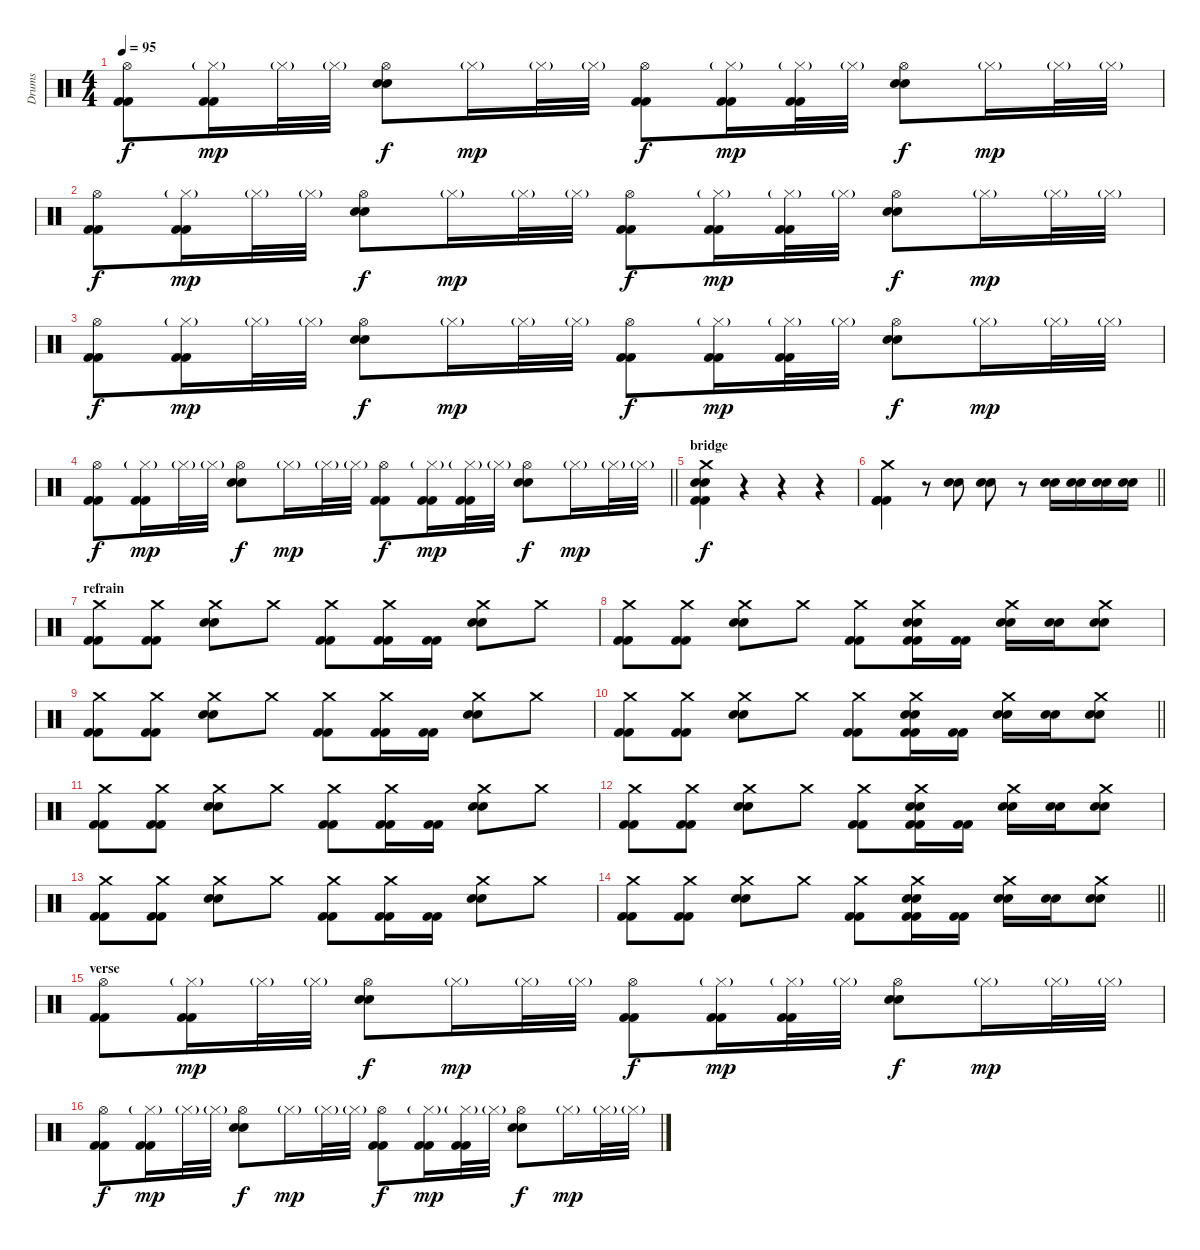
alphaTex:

\track ("Drums" "Drums") {instrument percussion}
\staff {score}
\articulation defaults
\ts (4 4)
\tempo 95
\clef neutral
\ks c
("Hi-Hat (open)" "Kick (hit) 2" "Kick (hit) 2").8{dy f} ("Hi-Hat (closed)"{g} "Kick (hit) 2" "Kick (hit) 2").16{dy mp} "Hi-Hat (closed)"{g}.32 "Hi-Hat (closed)"{g}.32 ("Hi-Hat (open)" "Snare (hit) 2" "Snare (hit) 2").8{dy f} "Hi-Hat (closed)"{g}.16{dy mp} "Hi-Hat (closed)"{g}.32 "Hi-Hat (closed)"{g}.32 ("Hi-Hat (open)" "Kick (hit) 2" "Kick (hit) 2").8{dy f} ("Hi-Hat (closed)"{g} "Kick (hit) 2" "Kick (hit) 2").16{dy mp} ("Hi-Hat (closed)"{g} "Kick (hit) 2" "Kick (hit) 2").32 "Hi-Hat (closed)"{g}.32 ("Hi-Hat (open)" "Snare (hit) 2" "Snare (hit) 2").8{dy f} "Hi-Hat (closed)"{g}.16{dy mp} "Hi-Hat (closed)"{g}.32 "Hi-Hat (closed)"{g}.32 |
("Hi-Hat (open)" "Kick (hit) 2" "Kick (hit) 2").8{dy f} ("Hi-Hat (closed)"{g} "Kick (hit) 2" "Kick (hit) 2").16{dy mp} "Hi-Hat (closed)"{g}.32 "Hi-Hat (closed)"{g}.32 ("Hi-Hat (open)" "Snare (hit) 2" "Snare (hit) 2").8{dy f} "Hi-Hat (closed)"{g}.16{dy mp} "Hi-Hat (closed)"{g}.32 "Hi-Hat (closed)"{g}.32 ("Hi-Hat (open)" "Kick (hit) 2" "Kick (hit) 2").8{dy f} ("Hi-Hat (closed)"{g} "Kick (hit) 2" "Kick (hit) 2").16{dy mp} ("Hi-Hat (closed)"{g} "Kick (hit) 2" "Kick (hit) 2").32 "Hi-Hat (closed)"{g}.32 ("Hi-Hat (open)" "Snare (hit) 2" "Snare (hit) 2").8{dy f} "Hi-Hat (closed)"{g}.16{dy mp} "Hi-Hat (closed)"{g}.32 "Hi-Hat (closed)"{g}.32 |
("Hi-Hat (open)" "Kick (hit) 2" "Kick (hit) 2").8{dy f} ("Hi-Hat (closed)"{g} "Kick (hit) 2" "Kick (hit) 2").16{dy mp} "Hi-Hat (closed)"{g}.32 "Hi-Hat (closed)"{g}.32 ("Hi-Hat (open)" "Snare (hit) 2" "Snare (hit) 2").8{dy f} "Hi-Hat (closed)"{g}.16{dy mp} "Hi-Hat (closed)"{g}.32 "Hi-Hat (closed)"{g}.32 ("Hi-Hat (open)" "Kick (hit) 2" "Kick (hit) 2").8{dy f} ("Hi-Hat (closed)"{g} "Kick (hit) 2" "Kick (hit) 2").16{dy mp} ("Hi-Hat (closed)"{g} "Kick (hit) 2" "Kick (hit) 2").32 "Hi-Hat (closed)"{g}.32 ("Hi-Hat (open)" "Snare (hit) 2" "Snare (hit) 2").8{dy f} "Hi-Hat (closed)"{g}.16{dy mp} "Hi-Hat (closed)"{g}.32 "Hi-Hat (closed)"{g}.32 |
\barLineRight lightlight
("Hi-Hat (open)" "Kick (hit) 2" "Kick (hit) 2").8{dy f} ("Hi-Hat (closed)"{g} "Kick (hit) 2" "Kick (hit) 2").16{dy mp} "Hi-Hat (closed)"{g}.32 "Hi-Hat (closed)"{g}.32 ("Hi-Hat (open)" "Snare (hit) 2" "Snare (hit) 2").8{dy f} "Hi-Hat (closed)"{g}.16{dy mp} "Hi-Hat (closed)"{g}.32 "Hi-Hat (closed)"{g}.32 ("Hi-Hat (open)" "Kick (hit) 2" "Kick (hit) 2").8{dy f} ("Hi-Hat (closed)"{g} "Kick (hit) 2" "Kick (hit) 2").16{dy mp} ("Hi-Hat (closed)"{g} "Kick (hit) 2" "Kick (hit) 2").32 "Hi-Hat (closed)"{g}.32 ("Hi-Hat (open)" "Snare (hit) 2" "Snare (hit) 2").8{dy f} "Hi-Hat (closed)"{g}.16{dy mp} "Hi-Hat (closed)"{g}.32 "Hi-Hat (closed)"{g}.32 |
\section ("" "bridge")
("Crash medium (hit)" "Snare (hit) 2" "Snare (hit) 2" "Kick (hit) 2" "Kick (hit) 2").4{dy f} r.4 r.4 r.4 |
\barLineRight lightlight
("Crash medium (hit)" "Kick (hit) 2" "Kick (hit) 2" "Kick (hit) 2").4 r.8 ("Snare (hit) 2" "Snare (hit) 2").8 ("Snare (hit) 2" "Snare (hit) 2").8 r.8 ("Snare (hit) 2" "Snare (hit) 2").16 ("Snare (hit) 2" "Snare (hit) 2").16 ("Snare (hit) 2" "Snare (hit) 2").16 ("Snare (hit) 2" "Snare (hit) 2").16 |
\section ("" "refrain")
("Crash medium (hit)" "Kick (hit) 2" "Kick (hit) 2").8 ("Crash medium (hit)" "Kick (hit) 2" "Kick (hit) 2").8 ("Crash medium (hit)" "Snare (hit) 2" "Snare (hit) 2").8 "Crash medium (hit)".8 ("Crash medium (hit)" "Kick (hit) 2" "Kick (hit) 2").8 ("Crash medium (hit)" "Kick (hit) 2" "Kick (hit) 2").16 ("Kick (hit) 2" "Kick (hit) 2").16 ("Crash medium (hit)" "Snare (hit) 2" "Snare (hit) 2").8 "Crash medium (hit)".8 |
("Crash medium (hit)" "Kick (hit) 2" "Kick (hit) 2").8 ("Crash medium (hit)" "Kick (hit) 2" "Kick (hit) 2").8 ("Crash medium (hit)" "Snare (hit) 2" "Snare (hit) 2").8 "Crash medium (hit)".8 ("Crash medium (hit)" "Kick (hit) 2" "Kick (hit) 2").8 ("Crash medium (hit)" "Snare (hit) 2" "Snare (hit) 2" "Kick (hit) 2" "Kick (hit) 2").16 ("Kick (hit) 2" "Kick (hit) 2").16 ("Crash medium (hit)" "Snare (hit) 2" "Snare (hit) 2").16 ("Snare (hit) 2" "Snare (hit) 2").16 ("Crash medium (hit)" "Snare (hit) 2" "Snare (hit) 2").8 |
("Crash medium (hit)" "Kick (hit) 2" "Kick (hit) 2").8 ("Crash medium (hit)" "Kick (hit) 2" "Kick (hit) 2").8 ("Crash medium (hit)" "Snare (hit) 2" "Snare (hit) 2").8 "Crash medium (hit)".8 ("Crash medium (hit)" "Kick (hit) 2" "Kick (hit) 2").8 ("Crash medium (hit)" "Kick (hit) 2" "Kick (hit) 2").16 ("Kick (hit) 2" "Kick (hit) 2").16 ("Crash medium (hit)" "Snare (hit) 2" "Snare (hit) 2").8 "Crash medium (hit)".8 |
\barLineRight lightlight
("Crash medium (hit)" "Kick (hit) 2" "Kick (hit) 2").8 ("Crash medium (hit)" "Kick (hit) 2" "Kick (hit) 2").8 ("Crash medium (hit)" "Snare (hit) 2" "Snare (hit) 2").8 "Crash medium (hit)".8 ("Crash medium (hit)" "Kick (hit) 2" "Kick (hit) 2").8 ("Crash medium (hit)" "Snare (hit) 2" "Snare (hit) 2" "Kick (hit) 2" "Kick (hit) 2").16 ("Kick (hit) 2" "Kick (hit) 2").16 ("Crash medium (hit)" "Snare (hit) 2" "Snare (hit) 2").16 ("Snare (hit) 2" "Snare (hit) 2").16 ("Crash medium (hit)" "Snare (hit) 2" "Snare (hit) 2").8 |
("Crash medium (hit)" "Kick (hit) 2" "Kick (hit) 2").8 ("Crash medium (hit)" "Kick (hit) 2" "Kick (hit) 2").8 ("Crash medium (hit)" "Snare (hit) 2" "Snare (hit) 2").8 "Crash medium (hit)".8 ("Crash medium (hit)" "Kick (hit) 2" "Kick (hit) 2").8 ("Crash medium (hit)" "Kick (hit) 2" "Kick (hit) 2").16 ("Kick (hit) 2" "Kick (hit) 2").16 ("Crash medium (hit)" "Snare (hit) 2" "Snare (hit) 2").8 "Crash medium (hit)".8 |
("Crash medium (hit)" "Kick (hit) 2" "Kick (hit) 2").8 ("Crash medium (hit)" "Kick (hit) 2" "Kick (hit) 2").8 ("Crash medium (hit)" "Snare (hit) 2" "Snare (hit) 2").8 "Crash medium (hit)".8 ("Crash medium (hit)" "Kick (hit) 2" "Kick (hit) 2").8 ("Crash medium (hit)" "Snare (hit) 2" "Snare (hit) 2" "Kick (hit) 2" "Kick (hit) 2").16 ("Kick (hit) 2" "Kick (hit) 2").16 ("Crash medium (hit)" "Snare (hit) 2" "Snare (hit) 2").16 ("Snare (hit) 2" "Snare (hit) 2").16 ("Crash medium (hit)" "Snare (hit) 2" "Snare (hit) 2").8 |
("Crash medium (hit)" "Kick (hit) 2" "Kick (hit) 2").8 ("Crash medium (hit)" "Kick (hit) 2" "Kick (hit) 2").8 ("Crash medium (hit)" "Snare (hit) 2" "Snare (hit) 2").8 "Crash medium (hit)".8 ("Crash medium (hit)" "Kick (hit) 2" "Kick (hit) 2").8 ("Crash medium (hit)" "Kick (hit) 2" "Kick (hit) 2").16 ("Kick (hit) 2" "Kick (hit) 2").16 ("Crash medium (hit)" "Snare (hit) 2" "Snare (hit) 2").8 "Crash medium (hit)".8 |
\barLineRight lightlight
("Crash medium (hit)" "Kick (hit) 2" "Kick (hit) 2").8 ("Crash medium (hit)" "Kick (hit) 2" "Kick (hit) 2").8 ("Crash medium (hit)" "Snare (hit) 2" "Snare (hit) 2").8 "Crash medium (hit)".8 ("Crash medium (hit)" "Kick (hit) 2" "Kick (hit) 2").8 ("Crash medium (hit)" "Snare (hit) 2" "Snare (hit) 2" "Kick (hit) 2" "Kick (hit) 2").16 ("Kick (hit) 2" "Kick (hit) 2").16 ("Crash medium (hit)" "Snare (hit) 2" "Snare (hit) 2").16 ("Snare (hit) 2" "Snare (hit) 2").16 ("Crash medium (hit)" "Snare (hit) 2" "Snare (hit) 2").8 |
\section ("" "verse")
("Hi-Hat (open)" "Kick (hit) 2" "Kick (hit) 2").8 ("Hi-Hat (closed)"{g} "Kick (hit) 2" "Kick (hit) 2").16{dy mp} "Hi-Hat (closed)"{g}.32 "Hi-Hat (closed)"{g}.32 ("Hi-Hat (open)" "Snare (hit) 2" "Snare (hit) 2").8{dy f} "Hi-Hat (closed)"{g}.16{dy mp} "Hi-Hat (closed)"{g}.32 "Hi-Hat (closed)"{g}.32 ("Hi-Hat (open)" "Kick (hit) 2" "Kick (hit) 2").8{dy f} ("Hi-Hat (closed)"{g} "Kick (hit) 2" "Kick (hit) 2").16{dy mp} ("Hi-Hat (closed)"{g} "Kick (hit) 2" "Kick (hit) 2").32 "Hi-Hat (closed)"{g}.32 ("Hi-Hat (open)" "Snare (hit) 2" "Snare (hit) 2").8{dy f} "Hi-Hat (closed)"{g}.16{dy mp} "Hi-Hat (closed)"{g}.32 "Hi-Hat (closed)"{g}.32 |
("Hi-Hat (open)" "Kick (hit) 2" "Kick (hit) 2").8{dy f} ("Hi-Hat (closed)"{g} "Kick (hit) 2" "Kick (hit) 2").16{dy mp} "Hi-Hat (closed)"{g}.32 "Hi-Hat (closed)"{g}.32 ("Hi-Hat (open)" "Snare (hit) 2" "Snare (hit) 2").8{dy f} "Hi-Hat (closed)"{g}.16{dy mp} "Hi-Hat (closed)"{g}.32 "Hi-Hat (closed)"{g}.32 ("Hi-Hat (open)" "Kick (hit) 2" "Kick (hit) 2").8{dy f} ("Hi-Hat (closed)"{g} "Kick (hit) 2" "Kick (hit) 2").16{dy mp} ("Hi-Hat (closed)"{g} "Kick (hit) 2" "Kick (hit) 2").32 "Hi-Hat (closed)"{g}.32 ("Hi-Hat (open)" "Snare (hit) 2" "Snare (hit) 2").8{dy f} "Hi-Hat (closed)"{g}.16{dy mp} "Hi-Hat (closed)"{g}.32 "Hi-Hat (closed)"{g}.32
